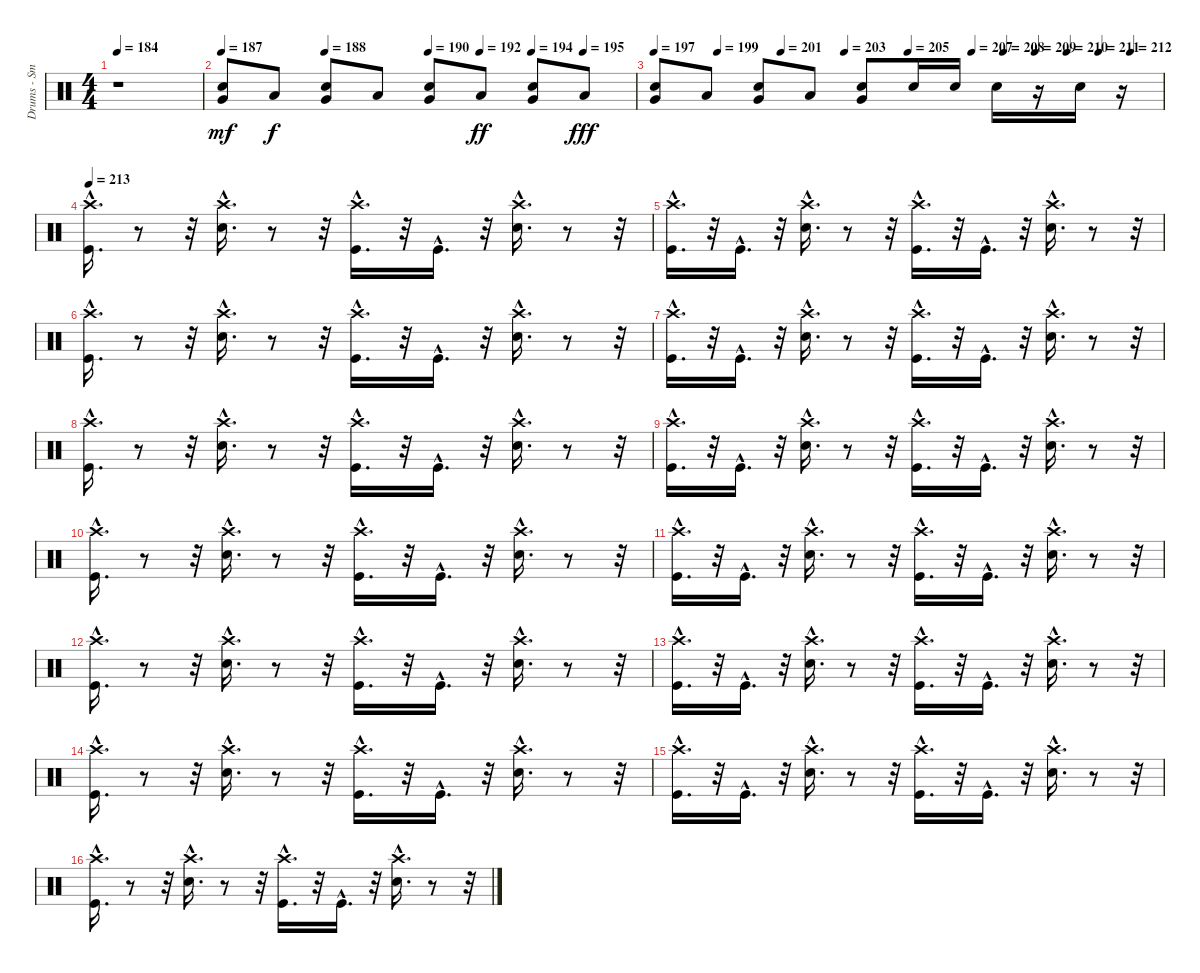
\track ("Drums - Smelly" "Drums - Sm") {instrument percussion}
\staff {score}
\articulation defaults
\ts (4 4)
\tempo 184
\clef neutral
\ks c
r.1{dy fff} |
\tempo 187
\tempo (188 0.25)
\tempo (190 0.5)
\tempo (192 0.625)
\tempo (194 0.75)
\tempo (195 0.875)
("Snare (hit) 2" "Very Low Tom (hit)").8{dy mf} "Low Floor Tom (hit)".8{dy f} ("Snare (hit) 2" "Very Low Tom (hit)").8 "Low Floor Tom (hit)".8 ("Snare (hit) 2" "Very Low Tom (hit)").8 "Low Floor Tom (hit)".8{dy ff} ("Snare (hit) 2" "Very Low Tom (hit)").8 "Low Floor Tom (hit)".8{dy fff} |
\tempo 197
\tempo (199 0.125)
\tempo (201 0.25)
\tempo (203 0.375)
\tempo (205 0.5)
\tempo (207 0.625)
\tempo (208 0.6875)
\tempo (209 0.75)
\tempo (210 0.8125)
\tempo (211 0.875)
\tempo (212 0.9375)
("Snare (hit) 2" "Very Low Tom (hit)").8 "Low Floor Tom (hit)".8 ("Snare (hit) 2" "Very Low Tom (hit)").8 "Low Floor Tom (hit)".8 ("Snare (hit) 2" "Very Low Tom (hit)").8 "Snare (hit) 2".16 "Snare (hit) 2".16 "Snare (hit) 2".16 r.16 "Snare (hit) 2".16 r.16 |
\tempo 213
("Crash high (hit)"{hac} "Kick (hit)"{hac}).16{d} r.8 r.32 ("Electric Snare (hit)"{hac} "Crash high (hit)"{hac}).16{d} r.8 r.32 ("Crash high (hit)"{hac} "Kick (hit)"{hac}).16{d} r.32 "Kick (hit)"{hac}.16{d} r.32 ("Electric Snare (hit)"{hac} "Crash high (hit)"{hac}).16{d} r.8 r.32 |
("Crash high (hit)"{hac} "Kick (hit)"{hac}).16{d} r.32 "Kick (hit)"{hac}.16{d} r.32 ("Crash high (hit)"{hac} "Electric Snare (hit)"{hac}).16{d} r.8 r.32 ("Kick (hit)"{hac} "Crash high (hit)"{hac}).16{d} r.32 "Kick (hit)"{hac}.16{d} r.32 ("Electric Snare (hit)"{hac} "Crash high (hit)"{hac}).16{d} r.8 r.32 |
("Crash high (hit)"{hac} "Kick (hit)"{hac}).16{d} r.8 r.32 ("Electric Snare (hit)"{hac} "Crash high (hit)"{hac}).16{d} r.8 r.32 ("Kick (hit)"{hac} "Crash high (hit)"{hac}).16{d} r.32 "Kick (hit)"{hac}.16{d} r.32 ("Electric Snare (hit)"{hac} "Crash high (hit)"{hac}).16{d} r.8 r.32 |
("Crash high (hit)"{hac} "Kick (hit)"{hac}).16{d} r.32 "Kick (hit)"{hac}.16{d} r.32 ("Electric Snare (hit)"{hac} "Crash high (hit)"{hac}).16{d} r.8 r.32 ("Kick (hit)"{hac} "Crash high (hit)"{hac}).16{d} r.32 "Kick (hit)"{hac}.16{d} r.32 ("Electric Snare (hit)"{hac} "Crash high (hit)"{hac}).16{d} r.8 r.32 |
("Crash high (hit)"{hac} "Kick (hit)"{hac}).16{d} r.8 r.32 ("Crash high (hit)"{hac} "Electric Snare (hit)"{hac}).16{d} r.8 r.32 ("Crash high (hit)"{hac} "Kick (hit)"{hac}).16{d} r.32 "Kick (hit)"{hac}.16{d} r.32 ("Crash high (hit)"{hac} "Electric Snare (hit)"{hac}).16{d} r.8 r.32 |
("Crash high (hit)"{hac} "Kick (hit)"{hac}).16{d} r.32 "Kick (hit)"{hac}.16{d} r.32 ("Crash high (hit)"{hac} "Electric Snare (hit)"{hac}).16{d} r.8 r.32 ("Crash high (hit)"{hac} "Kick (hit)"{hac}).16{d} r.32 "Kick (hit)"{hac}.16{d} r.32 ("Crash high (hit)"{hac} "Electric Snare (hit)"{hac}).16{d} r.8 r.32 |
("Kick (hit)"{hac} "Crash high (hit)"{hac}).16{d} r.8 r.32 ("Electric Snare (hit)"{hac} "Crash high (hit)"{hac}).16{d} r.8 r.32 ("Kick (hit)"{hac} "Crash high (hit)"{hac}).16{d} r.32 "Kick (hit)"{hac}.16{d} r.32 ("Electric Snare (hit)"{hac} "Crash high (hit)"{hac}).16{d} r.8 r.32 |
("Crash high (hit)"{hac} "Kick (hit)"{hac}).16{d} r.32 "Kick (hit)"{hac}.16{d} r.32 ("Electric Snare (hit)"{hac} "Crash high (hit)"{hac}).16{d} r.8 r.32 ("Kick (hit)"{hac} "Crash high (hit)"{hac}).16{d} r.32 "Kick (hit)"{hac}.16{d} r.32 ("Crash high (hit)"{hac} "Electric Snare (hit)"{hac}).16{d} r.8 r.32 |
("Crash high (hit)"{hac} "Kick (hit)"{hac}).16{d} r.8 r.32 ("Crash high (hit)"{hac} "Electric Snare (hit)"{hac}).16{d} r.8 r.32 ("Crash high (hit)"{hac} "Kick (hit)"{hac}).16{d} r.32 "Kick (hit)"{hac}.16{d} r.32 ("Crash high (hit)"{hac} "Electric Snare (hit)"{hac}).16{d} r.8 r.32 |
("Kick (hit)"{hac} "Crash high (hit)"{hac}).16{d} r.32 "Kick (hit)"{hac}.16{d} r.32 ("Crash high (hit)"{hac} "Electric Snare (hit)"{hac}).16{d} r.8 r.32 ("Kick (hit)"{hac} "Crash high (hit)"{hac}).16{d} r.32 "Kick (hit)"{hac}.16{d} r.32 ("Crash high (hit)"{hac} "Electric Snare (hit)"{hac}).16{d} r.8 r.32 |
("Crash high (hit)"{hac} "Kick (hit)"{hac}).16{d} r.8 r.32 ("Electric Snare (hit)"{hac} "Crash high (hit)"{hac}).16{d} r.8 r.32 ("Kick (hit)"{hac} "Crash high (hit)"{hac}).16{d} r.32 "Kick (hit)"{hac}.16{d} r.32 ("Crash high (hit)"{hac} "Electric Snare (hit)"{hac}).16{d} r.8 r.32 |
("Crash high (hit)"{hac} "Kick (hit)"{hac}).16{d} r.32 "Kick (hit)"{hac}.16{d} r.32 ("Electric Snare (hit)"{hac} "Crash high (hit)"{hac}).16{d} r.8 r.32 ("Kick (hit)"{hac} "Crash high (hit)"{hac}).16{d} r.32 "Kick (hit)"{hac}.16{d} r.32 ("Crash high (hit)"{hac} "Electric Snare (hit)"{hac}).16{d} r.8 r.32 |
("Kick (hit)"{hac} "Crash high (hit)"{hac}).16{d} r.8 r.32 ("Crash high (hit)"{hac} "Electric Snare (hit)"{hac}).16{d} r.8 r.32 ("Kick (hit)"{hac} "Crash high (hit)"{hac}).16{d} r.32 "Kick (hit)"{hac}.16{d} r.32 ("Electric Snare (hit)"{hac} "Crash high (hit)"{hac}).16{d} r.8 r.32
